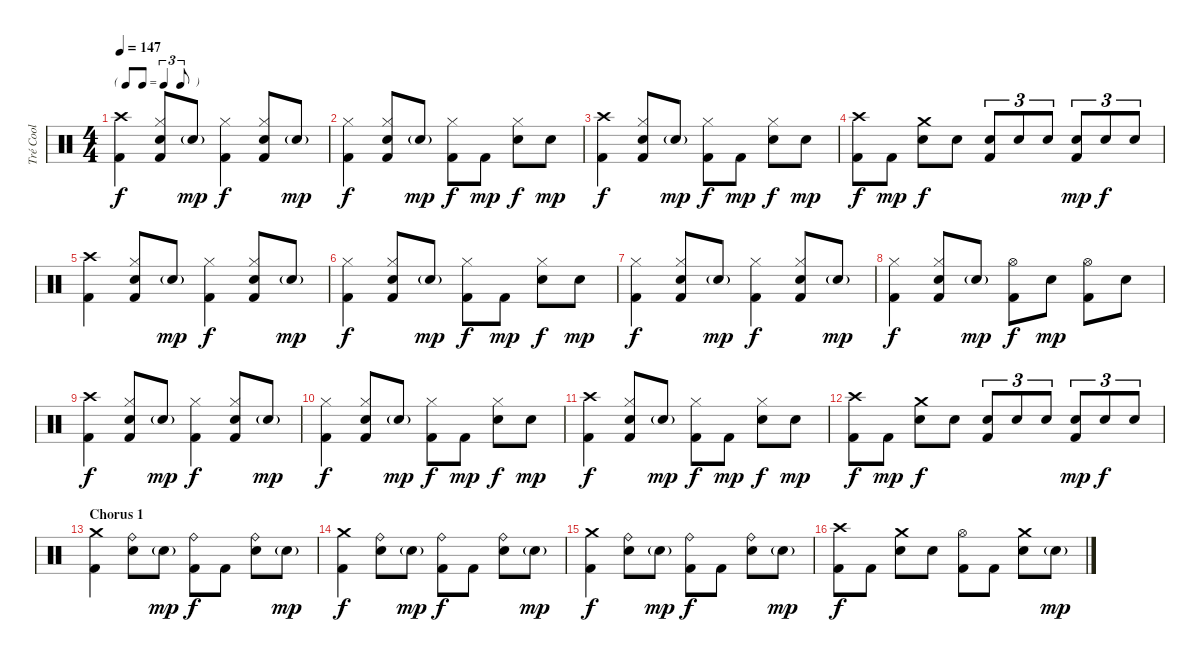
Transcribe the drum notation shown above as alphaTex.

\track ("Tré Cool" "Tré Cool") {instrument percussion}
\staff {score}
\articulation defaults
\ts (4 4)
\tf triplet8th
\tempo 147
\clef neutral
\ks c
("Crash high (hit)" "Kick (hit) 2").4{dy f} ("Hi-Hat (closed)" "Snare (hit) 2" "Kick (hit) 2").8 "Snare (hit) 2"{g}.8{dy mp} ("Hi-Hat (closed)" "Kick (hit) 2").4{dy f} ("Hi-Hat (closed)" "Snare (hit) 2" "Kick (hit) 2").8 "Snare (hit) 2"{g}.8{dy mp} |
("Hi-Hat (closed)" "Kick (hit) 2").4{dy f} ("Hi-Hat (closed)" "Snare (hit) 2" "Kick (hit) 2").8 "Snare (hit) 2"{g}.8{dy mp} ("Hi-Hat (closed)" "Kick (hit) 2").8{dy f} "Kick (hit) 2".8{dy mp} ("Hi-Hat (closed)" "Snare (hit) 2").8{dy f} "Snare (hit) 2".8{dy mp} |
("Crash high (hit)" "Kick (hit) 2").4{dy f} ("Hi-Hat (closed)" "Snare (hit) 2" "Kick (hit) 2").8 "Snare (hit) 2"{g}.8{dy mp} ("Hi-Hat (closed)" "Kick (hit) 2").8{dy f} "Kick (hit) 2".8{dy mp} ("Hi-Hat (closed)" "Snare (hit) 2").8{dy f} "Snare (hit) 2".8{dy mp} |
("Crash high (hit)" "Kick (hit) 2").8{dy f} "Kick (hit) 2".8{dy mp} ("Crash medium (hit)" "Snare (hit) 2").8{dy f} "Snare (hit) 2".8 ("Snare (hit) 2" "Kick (hit) 2").8{tu (3 2)} "Snare (hit) 2".8{tu (3 2)} "Snare (hit) 2".8{tu (3 2)} ("Snare (hit) 2" "Kick (hit) 2").8{tu (3 2) dy mp} "Snare (hit) 2".8{tu (3 2) dy f} "Snare (hit) 2".8{tu (3 2)} |
("Crash high (hit)" "Kick (hit) 2").4 ("Hi-Hat (closed)" "Snare (hit) 2" "Kick (hit) 2").8 "Snare (hit) 2"{g}.8{dy mp} ("Hi-Hat (closed)" "Kick (hit) 2").4{dy f} ("Hi-Hat (closed)" "Snare (hit) 2" "Kick (hit) 2").8 "Snare (hit) 2"{g}.8{dy mp} |
("Hi-Hat (closed)" "Kick (hit) 2").4{dy f} ("Hi-Hat (closed)" "Snare (hit) 2" "Kick (hit) 2").8 "Snare (hit) 2"{g}.8{dy mp} ("Hi-Hat (closed)" "Kick (hit) 2").8{dy f} "Kick (hit) 2".8{dy mp} ("Hi-Hat (closed)" "Snare (hit) 2").8{dy f} "Snare (hit) 2".8{dy mp} |
("Hi-Hat (closed)" "Kick (hit) 2").4{dy f} ("Hi-Hat (closed)" "Snare (hit) 2" "Kick (hit) 2").8 "Snare (hit) 2"{g}.8{dy mp} ("Hi-Hat (closed)" "Kick (hit) 2").4{dy f} ("Hi-Hat (closed)" "Snare (hit) 2" "Kick (hit) 2").8 "Snare (hit) 2"{g}.8{dy mp} |
("Hi-Hat (closed)" "Kick (hit) 2").4{dy f} ("Hi-Hat (closed)" "Snare (hit) 2" "Kick (hit) 2").8 "Snare (hit) 2"{g}.8{dy mp} ("Hi-Hat (open)" "Kick (hit) 2").8{dy f} "Snare (hit) 2".8{dy mp} ("Hi-Hat (open)" "Kick (hit) 2").8 "Snare (hit) 2".8 |
("Crash high (hit)" "Kick (hit) 2").4{dy f} ("Hi-Hat (closed)" "Snare (hit) 2" "Kick (hit) 2").8 "Snare (hit) 2"{g}.8{dy mp} ("Hi-Hat (closed)" "Kick (hit) 2").4{dy f} ("Hi-Hat (closed)" "Snare (hit) 2" "Kick (hit) 2").8 "Snare (hit) 2"{g}.8{dy mp} |
("Hi-Hat (closed)" "Kick (hit) 2").4{dy f} ("Hi-Hat (closed)" "Snare (hit) 2" "Kick (hit) 2").8 "Snare (hit) 2"{g}.8{dy mp} ("Hi-Hat (closed)" "Kick (hit) 2").8{dy f} "Kick (hit) 2".8{dy mp} ("Hi-Hat (closed)" "Snare (hit) 2").8{dy f} "Snare (hit) 2".8{dy mp} |
("Crash high (hit)" "Kick (hit) 2").4{dy f} ("Hi-Hat (closed)" "Snare (hit) 2" "Kick (hit) 2").8 "Snare (hit) 2"{g}.8{dy mp} ("Hi-Hat (closed)" "Kick (hit) 2").8{dy f} "Kick (hit) 2".8{dy mp} ("Hi-Hat (closed)" "Snare (hit) 2").8{dy f} "Snare (hit) 2".8{dy mp} |
("Crash high (hit)" "Kick (hit) 2").8{dy f} "Kick (hit) 2".8{dy mp} ("Crash medium (hit)" "Snare (hit) 2").8{dy f} "Snare (hit) 2".8 ("Snare (hit) 2" "Kick (hit) 2").8{tu (3 2)} "Snare (hit) 2".8{tu (3 2)} "Snare (hit) 2".8{tu (3 2)} ("Snare (hit) 2" "Kick (hit) 2").8{tu (3 2) dy mp} "Snare (hit) 2".8{tu (3 2) dy f} "Snare (hit) 2".8{tu (3 2)} |
\section ("" "Chorus 1")
("Crash medium (hit)" "Kick (hit) 2").4 ("Ride (bell)" "Snare (hit) 2").8 "Snare (hit) 2"{g}.8{dy mp} ("Ride (bell)" "Kick (hit) 2").8{dy f} "Kick (hit) 2".8 ("Ride (bell)" "Snare (hit) 2").8 "Snare (hit) 2"{g}.8{dy mp} |
("Crash medium (hit)" "Kick (hit) 2").4{dy f} ("Ride (bell)" "Snare (hit) 2").8 "Snare (hit) 2"{g}.8{dy mp} ("Ride (bell)" "Kick (hit) 2").8{dy f} "Kick (hit) 2".8 ("Ride (bell)" "Snare (hit) 2").8 "Snare (hit) 2"{g}.8{dy mp} |
("Crash medium (hit)" "Kick (hit) 2").4{dy f} ("Ride (bell)" "Snare (hit) 2").8 "Snare (hit) 2"{g}.8{dy mp} ("Ride (bell)" "Kick (hit) 2").8{dy f} "Kick (hit) 2".8 ("Ride (bell)" "Snare (hit) 2").8 "Snare (hit) 2"{g}.8{dy mp} |
("Crash high (hit)" "Kick (hit) 2").8{dy f} "Kick (hit) 2".8 ("Crash medium (hit)" "Snare (hit) 2").8 "Snare (hit) 2".8 ("Hi-Hat (open)" "Kick (hit) 2").8 "Kick (hit) 2".8 ("Crash medium (hit)" "Snare (hit) 2").8 "Snare (hit) 2"{g}.8{dy mp}
